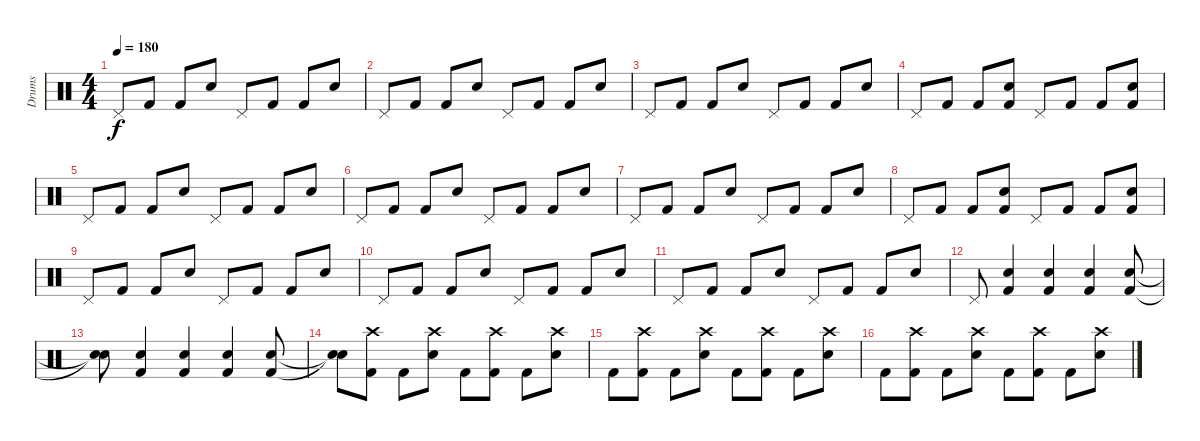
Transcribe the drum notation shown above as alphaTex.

\track ("Drums" "Drums") {instrument percussion}
\staff {score}
\articulation defaults
\ts (4 4)
\tempo 180
\clef neutral
\ks c "Pedal Hi-Hat (hit)".8{dy f} "Kick (hit) 2".8 "Kick (hit) 2".8 "Electric Snare (hit)".8 "Pedal Hi-Hat (hit)".8 "Kick (hit) 2".8 "Kick (hit) 2".8 "Electric Snare (hit)".8
|
"Pedal Hi-Hat (hit)".8 "Kick (hit) 2".8 "Kick (hit) 2".8 "Electric Snare (hit)".8 "Pedal Hi-Hat (hit)".8 "Kick (hit) 2".8 "Kick (hit) 2".8 "Electric Snare (hit)".8 |
"Pedal Hi-Hat (hit)".8 "Kick (hit) 2".8 "Kick (hit) 2".8 "Electric Snare (hit)".8 "Pedal Hi-Hat (hit)".8 "Kick (hit) 2".8 "Kick (hit) 2".8 "Electric Snare (hit)".8 |
"Pedal Hi-Hat (hit)".8 "Kick (hit) 2".8 "Kick (hit) 2".8 ("Kick (hit) 2" "Electric Snare (hit)").8 "Pedal Hi-Hat (hit)".8 "Kick (hit) 2".8 "Kick (hit) 2".8 ("Kick (hit) 2" "Electric Snare (hit)").8 |
"Pedal Hi-Hat (hit)".8 "Kick (hit) 2".8 "Kick (hit) 2".8 "Electric Snare (hit)".8 "Pedal Hi-Hat (hit)".8 "Kick (hit) 2".8 "Kick (hit) 2".8 "Electric Snare (hit)".8 |
"Pedal Hi-Hat (hit)".8 "Kick (hit) 2".8 "Kick (hit) 2".8 "Electric Snare (hit)".8 "Pedal Hi-Hat (hit)".8 "Kick (hit) 2".8 "Kick (hit) 2".8 "Electric Snare (hit)".8 |
"Pedal Hi-Hat (hit)".8 "Kick (hit) 2".8 "Kick (hit) 2".8 "Electric Snare (hit)".8 "Pedal Hi-Hat (hit)".8 "Kick (hit) 2".8 "Kick (hit) 2".8 "Electric Snare (hit)".8 |
"Pedal Hi-Hat (hit)".8 "Kick (hit) 2".8 "Kick (hit) 2".8 ("Kick (hit) 2" "Electric Snare (hit)").8 "Pedal Hi-Hat (hit)".8 "Kick (hit) 2".8 "Kick (hit) 2".8 ("Kick (hit) 2" "Electric Snare (hit)").8 |
"Pedal Hi-Hat (hit)".8 "Kick (hit) 2".8 "Kick (hit) 2".8 "Electric Snare (hit)".8 "Pedal Hi-Hat (hit)".8 "Kick (hit) 2".8 "Kick (hit) 2".8 "Electric Snare (hit)".8 |
"Pedal Hi-Hat (hit)".8 "Kick (hit) 2".8 "Kick (hit) 2".8 "Electric Snare (hit)".8 "Pedal Hi-Hat (hit)".8 "Kick (hit) 2".8 "Kick (hit) 2".8 "Electric Snare (hit)".8 |
"Pedal Hi-Hat (hit)".8 "Kick (hit) 2".8 "Kick (hit) 2".8 "Electric Snare (hit)".8 "Pedal Hi-Hat (hit)".8 "Kick (hit) 2".8 "Kick (hit) 2".8 "Electric Snare (hit)".8 |
"Pedal Hi-Hat (hit)".8 ("Kick (hit) 2" "Electric Snare (hit)").4 ("Kick (hit) 2" "Electric Snare (hit)").4 ("Kick (hit) 2" "Electric Snare (hit)").4 ("Kick (hit) 2" "Electric Snare (hit)").8 |
("Snare (hit)"{t} "Snare (hit)"{t}).8 ("Kick (hit) 2" "Electric Snare (hit)").4 ("Kick (hit) 2" "Electric Snare (hit)").4 ("Kick (hit) 2" "Electric Snare (hit)").4 ("Kick (hit) 2" "Electric Snare (hit)").8 |
("Snare (hit)"{t} "Snare (hit)"{t}).8 ("Crash high (hit)" "Kick (hit) 2").8 "Kick (hit) 2".8 ("Crash high (hit)" "Electric Snare (hit)").8 "Kick (hit) 2".8 ("Crash high (hit)" "Kick (hit) 2").8 "Kick (hit) 2".8 ("Crash high (hit)" "Electric Snare (hit)").8 |
"Kick (hit) 2".8 ("Crash high (hit)" "Kick (hit) 2").8 "Kick (hit) 2".8 ("Crash high (hit)" "Electric Snare (hit)").8 "Kick (hit) 2".8 ("Crash high (hit)" "Kick (hit) 2").8 "Kick (hit) 2".8 ("Crash high (hit)" "Electric Snare (hit)").8 |
"Kick (hit) 2".8 ("Crash high (hit)" "Kick (hit) 2").8 "Kick (hit) 2".8 ("Crash high (hit)" "Electric Snare (hit)").8 "Kick (hit) 2".8 ("Crash high (hit)" "Kick (hit) 2").8 "Kick (hit) 2".8 ("Crash high (hit)" "Electric Snare (hit)").8
